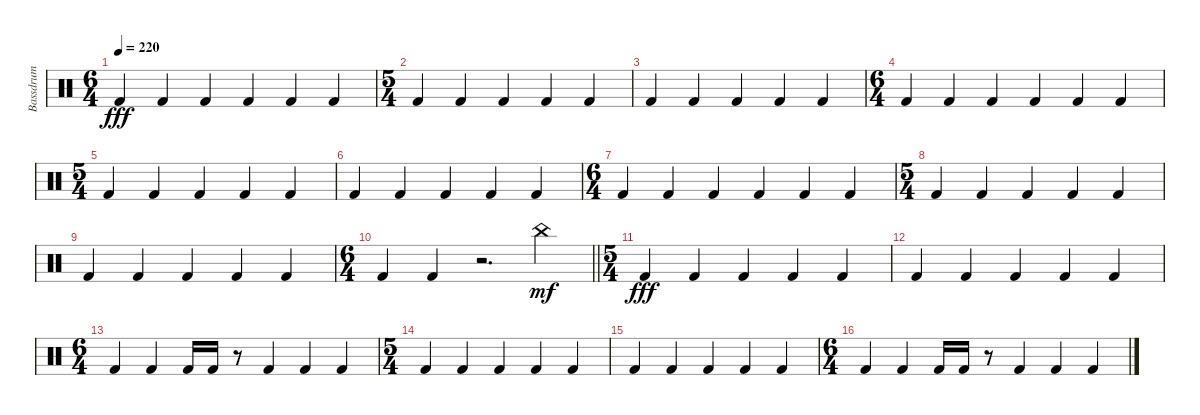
\track ("Bassdrum" "Bassdrum") {instrument percussion}
\staff {score}
\articulation defaults
\ts (6 4)
\tempo 220
\clef neutral
\ks c "Kick (hit) 2".4{dy fff} "Kick (hit) 2".4 "Kick (hit) 2".4 "Kick (hit) 2".4 "Kick (hit) 2".4 "Kick (hit) 2".4
|
\ts (5 4)
"Kick (hit) 2".4 "Kick (hit) 2".4 "Kick (hit) 2".4 "Kick (hit) 2".4 "Kick (hit) 2".4 |
"Kick (hit) 2".4 "Kick (hit) 2".4 "Kick (hit) 2".4 "Kick (hit) 2".4 "Kick (hit) 2".4 |
\ts (6 4)
"Kick (hit) 2".4 "Kick (hit) 2".4 "Kick (hit) 2".4 "Kick (hit) 2".4 "Kick (hit) 2".4 "Kick (hit) 2".4 |
\ts (5 4)
"Kick (hit) 2".4 "Kick (hit) 2".4 "Kick (hit) 2".4 "Kick (hit) 2".4 "Kick (hit) 2".4 |
"Kick (hit) 2".4 "Kick (hit) 2".4 "Kick (hit) 2".4 "Kick (hit) 2".4 "Kick (hit) 2".4 |
\ts (6 4)
"Kick (hit) 2".4 "Kick (hit) 2".4 "Kick (hit) 2".4 "Kick (hit) 2".4 "Kick (hit) 2".4 "Kick (hit) 2".4 |
\ts (5 4)
"Kick (hit) 2".4 "Kick (hit) 2".4 "Kick (hit) 2".4 "Kick (hit) 2".4 "Kick (hit) 2".4 |
"Kick (hit) 2".4 "Kick (hit) 2".4 "Kick (hit) 2".4 "Kick (hit) 2".4 "Kick (hit) 2".4 |
\ts (6 4)
\barLineRight lightlight "Kick (hit) 2".4 "Kick (hit) 2".4
r.2{d} "China (hit)".4{dy mf} |
\ts (5 4)
\section ("" "")
"Kick (hit) 2".4{dy fff} "Kick (hit) 2".4 "Kick (hit) 2".4 "Kick (hit) 2".4 "Kick (hit) 2".4 |
"Kick (hit) 2".4 "Kick (hit) 2".4 "Kick (hit) 2".4 "Kick (hit) 2".4 "Kick (hit) 2".4 |
\ts (6 4)
"Kick (hit) 2".4 "Kick (hit) 2".4 "Kick (hit) 2".16 "Kick (hit) 2".16 r.8 "Kick (hit) 2".4 "Kick (hit) 2".4 "Kick (hit) 2".4 |
\ts (5 4)
"Kick (hit) 2".4 "Kick (hit) 2".4 "Kick (hit) 2".4 "Kick (hit) 2".4 "Kick (hit) 2".4 |
"Kick (hit) 2".4 "Kick (hit) 2".4 "Kick (hit) 2".4 "Kick (hit) 2".4 "Kick (hit) 2".4 |
\ts (6 4)
"Kick (hit) 2".4 "Kick (hit) 2".4 "Kick (hit) 2".16 "Kick (hit) 2".16 r.8 "Kick (hit) 2".4 "Kick (hit) 2".4 "Kick (hit) 2".4
